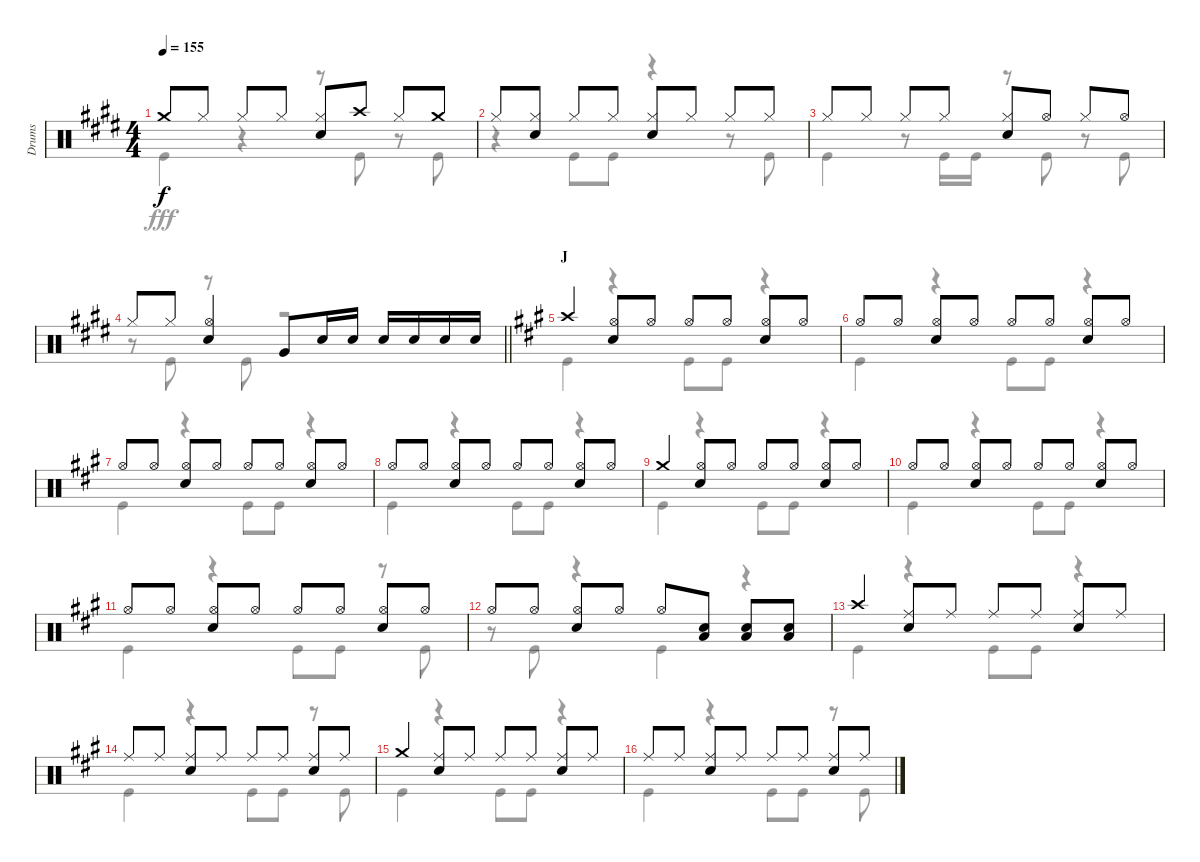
\track ("Drums" "Drums") {instrument percussion}
\staff {score}
\articulation defaults
\voice
\ts (4 4)
\tempo 155
\clef neutral
\ks e "Crash medium (hit)".8{dy f} "Hi-Hat (closed)".8 "Hi-Hat (closed)".8 "Hi-Hat (closed)".8
("Hi-Hat (closed)" "Snare (hit) 2").8 "Crash high (hit)".8 "Hi-Hat (closed)".8 "Crash medium (hit)".8 |
"Hi-Hat (closed)".8 ("Hi-Hat (closed)" "Snare (hit) 2").8 "Hi-Hat (closed)".8 "Hi-Hat (closed)".8 ("Hi-Hat (closed)" "Snare (hit) 2").8 "Hi-Hat (closed)".8 "Hi-Hat (closed)".8 "Hi-Hat (closed)".8 |
"Hi-Hat (closed)".8 "Hi-Hat (closed)".8 "Hi-Hat (closed)".8 "Hi-Hat (closed)".8 ("Hi-Hat (closed)" "Snare (hit) 2").8 "Hi-Hat (open)".8 "Hi-Hat (closed)".8 "Hi-Hat (open)".8 |
\barLineRight lightlight "Hi-Hat (closed)".8 "Hi-Hat (closed)".8
("Hi-Hat (open)" "Snare (hit) 2").4 "Very Low Tom (hit)".8 "Snare (hit) 2".16 "Snare (hit) 2".16 "Snare (hit) 2".16 "Snare (hit) 2".16 "Snare (hit) 2".16 "Snare (hit) 2".16 |
\section ("" "J")
\ks a "Crash high (hit)".4
("Hi-Hat (open)" "Snare (hit) 2").8 "Hi-Hat (open)".8 "Hi-Hat (open)".8 "Hi-Hat (open)".8 ("Hi-Hat (open)" "Snare (hit) 2").8 "Hi-Hat (open)".8 |
"Hi-Hat (open)".8 "Hi-Hat (open)".8 ("Hi-Hat (open)" "Snare (hit) 2").8 "Hi-Hat (open)".8 "Hi-Hat (open)".8 "Hi-Hat (open)".8 ("Hi-Hat (open)" "Snare (hit) 2").8 "Hi-Hat (open)".8 |
"Hi-Hat (open)".8 "Hi-Hat (open)".8 ("Hi-Hat (open)" "Snare (hit) 2").8 "Hi-Hat (open)".8 "Hi-Hat (open)".8 "Hi-Hat (open)".8 ("Hi-Hat (open)" "Snare (hit) 2").8 "Hi-Hat (open)".8 |
"Hi-Hat (open)".8 "Hi-Hat (open)".8 ("Hi-Hat (open)" "Snare (hit) 2").8 "Hi-Hat (open)".8 "Hi-Hat (open)".8 "Hi-Hat (open)".8 ("Hi-Hat (open)" "Snare (hit) 2").8 "Hi-Hat (open)".8 |
"Crash medium (hit)".4 ("Hi-Hat (open)" "Snare (hit) 2").8 "Hi-Hat (open)".8 "Hi-Hat (open)".8 "Hi-Hat (open)".8 ("Hi-Hat (open)" "Snare (hit) 2").8 "Hi-Hat (open)".8 |
"Hi-Hat (open)".8 "Hi-Hat (open)".8 ("Hi-Hat (open)" "Snare (hit) 2").8 "Hi-Hat (open)".8 "Hi-Hat (open)".8 "Hi-Hat (open)".8 ("Hi-Hat (open)" "Snare (hit) 2").8 "Hi-Hat (open)".8 |
"Hi-Hat (open)".8 "Hi-Hat (open)".8 ("Hi-Hat (open)" "Snare (hit) 2").8 "Hi-Hat (open)".8 "Hi-Hat (open)".8 "Hi-Hat (open)".8 ("Hi-Hat (open)" "Snare (hit) 2").8 "Hi-Hat (open)".8 |
"Hi-Hat (open)".8 "Hi-Hat (open)".8 ("Hi-Hat (open)" "Snare (hit) 2").8 "Hi-Hat (open)".8 "Hi-Hat (open)".8 ("Snare (hit) 2" "Low Tom (hit)").8 ("Snare (hit) 2" "Low Tom (hit)").8 ("Snare (hit) 2" "Low Tom (hit)").8 |
"Crash high (hit)".4 ("Ride (middle)" "Snare (hit) 2").8 "Ride (middle)".8 "Ride (middle)".8 "Ride (middle)".8 ("Ride (middle)" "Snare (hit) 2").8 "Ride (middle)".8 |
"Ride (middle)".8 "Ride (middle)".8 ("Ride (middle)" "Snare (hit) 2").8 "Ride (middle)".8 "Ride (middle)".8 "Ride (middle)".8 ("Ride (middle)" "Snare (hit) 2").8 "Ride (middle)".8 |
"Crash medium (hit)".4 ("Ride (middle)" "Snare (hit) 2").8 "Ride (middle)".8 "Ride (middle)".8 "Ride (middle)".8 ("Ride (middle)" "Snare (hit) 2").8 "Ride (middle)".8 |
"Ride (middle)".8 "Ride (middle)".8 ("Ride (middle)" "Snare (hit) 2").8 "Ride (middle)".8 "Ride (middle)".8 "Ride (middle)".8 ("Ride (middle)" "Snare (hit) 2").8 "Ride (middle)".8
\voice
\clef neutral
\ottava regular
\simile none
\ks e "Kick (hit)".4{dy fff}
r.4 r.8 "Kick (hit)".8 r.8 "Kick (hit)".8 |
r.4 "Kick (hit)".8 "Kick (hit)".8 r.4 r.8 "Kick (hit)".8 |
"Kick (hit)".4 r.8 "Kick (hit)".16 "Kick (hit)".16 r.8 "Kick (hit)".8 r.8 "Kick (hit)".8 |
\barLineRight lightlight
r.8 "Kick (hit)".8 r.8 "Kick (hit)".8 r.2 |
\ks a "Kick (hit)".4
r.4 "Kick (hit)".8 "Kick (hit)".8 r.4 |
"Kick (hit)".4 r.4 "Kick (hit)".8 "Kick (hit)".8 r.4 |
"Kick (hit)".4 r.4 "Kick (hit)".8 "Kick (hit)".8 r.4 |
"Kick (hit)".4 r.4 "Kick (hit)".8 "Kick (hit)".8 r.4 |
"Kick (hit)".4 r.4 "Kick (hit)".8 "Kick (hit)".8 r.4 |
"Kick (hit)".4 r.4 "Kick (hit)".8 "Kick (hit)".8 r.4 |
"Kick (hit)".4 r.4 "Kick (hit)".8 "Kick (hit)".8 r.8 "Kick (hit)".8 |
r.8 "Kick (hit)".8 r.4 "Kick (hit)".4 r.4 |
"Kick (hit)".4 r.4 "Kick (hit)".8 "Kick (hit)".8 r.4 |
"Kick (hit)".4 r.4 "Kick (hit)".8 "Kick (hit)".8 r.8 "Kick (hit)".8 |
"Kick (hit)".4 r.4 "Kick (hit)".8 "Kick (hit)".8 r.4 |
"Kick (hit)".4 r.4 "Kick (hit)".8 "Kick (hit)".8 r.8 "Kick (hit)".8
